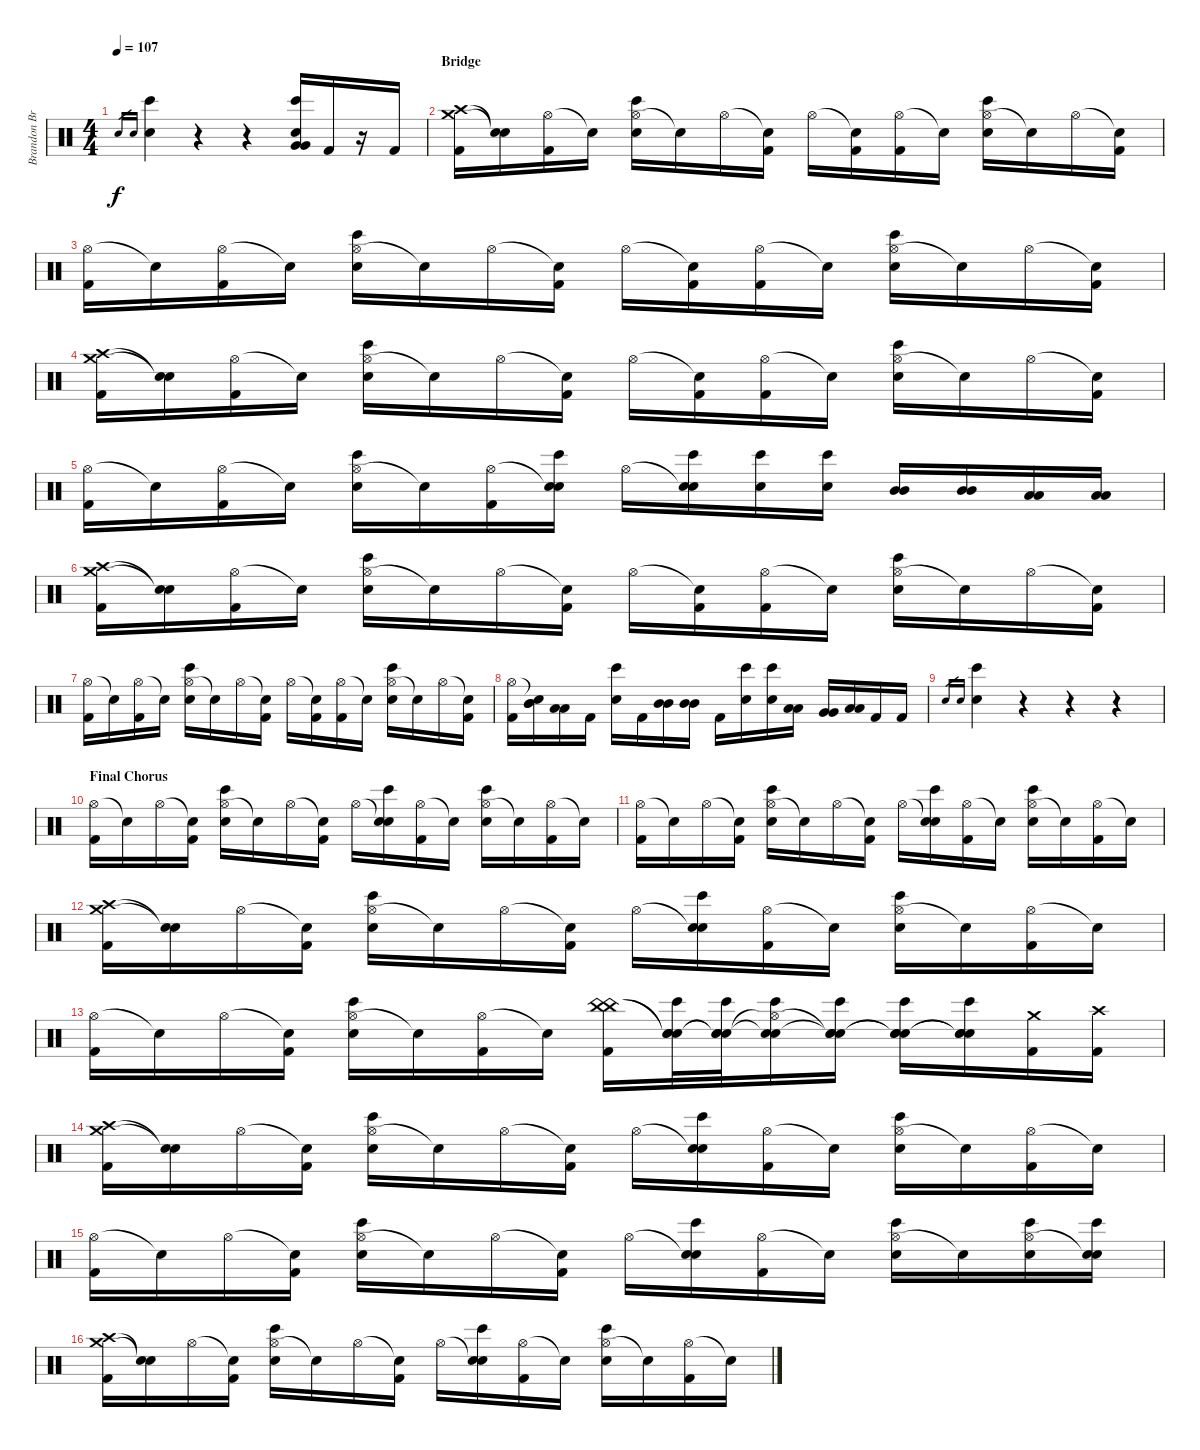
\track ("Brandon Brown (Drums)" "Brandon Br") {instrument percussion}
\staff {score}
\articulation defaults
\ts (4 4)
\tempo 107
\clef neutral
\ks c "Electric Snare (hit)".16{gr dy f} "Snare (hit)".16{gr}
("Electric Snare (hit)" "Bongo High (hit)").4 r.4 r.4 ("Bongo High (hit)" "Electric Snare (hit)" "Very Low Tom (hit)" "Very Low Tom (hit)").16 "Kick (hit) 2".16 r.16 "Kick (hit) 2".16 |
\section ("" "Bridge")
("Crash high (hit)" "Crash medium (hit)" "Kick (hit) 2").16 ("Snare (hit)"{t} "Snare (hit)"{t}).16 ("Hi-Hat (open)" "Kick (hit) 2").16 "Snare (hit)"{t}.16 ("Hi-Hat (open)" "Electric Snare (hit)" "Bongo High (hit)").16 "Snare (hit)"{t}.16 "Hi-Hat (open)".16 ("Snare (hit)"{t} "Kick (hit) 2").16 "Hi-Hat (open)".16 ("Snare (hit)"{t} "Kick (hit) 2").16 ("Hi-Hat (open)" "Kick (hit) 2").16 "Snare (hit)"{t}.16 ("Hi-Hat (open)" "Electric Snare (hit)" "Bongo High (hit)").16 "Snare (hit)"{t}.16 "Hi-Hat (open)".16 ("Snare (hit)"{t} "Kick (hit) 2").16 |
("Hi-Hat (open)" "Kick (hit) 2").16 "Snare (hit)"{t}.16 ("Hi-Hat (open)" "Kick (hit) 2").16 "Snare (hit)"{t}.16 ("Hi-Hat (open)" "Electric Snare (hit)" "Bongo High (hit)").16 "Snare (hit)"{t}.16 "Hi-Hat (open)".16 ("Snare (hit)"{t} "Kick (hit) 2").16 "Hi-Hat (open)".16 ("Snare (hit)"{t} "Kick (hit) 2").16 ("Hi-Hat (open)" "Kick (hit) 2").16 "Snare (hit)"{t}.16 ("Hi-Hat (open)" "Electric Snare (hit)" "Bongo High (hit)").16 "Snare (hit)"{t}.16 "Hi-Hat (open)".16 ("Snare (hit)"{t} "Kick (hit) 2").16 |
("Crash high (hit)" "Crash medium (hit)" "Kick (hit) 2").16 ("Snare (hit)"{t} "Snare (hit)"{t}).16 ("Hi-Hat (open)" "Kick (hit) 2").16 "Snare (hit)"{t}.16 ("Hi-Hat (open)" "Electric Snare (hit)" "Bongo High (hit)").16 "Snare (hit)"{t}.16 "Hi-Hat (open)".16 ("Snare (hit)"{t} "Kick (hit) 2").16 "Hi-Hat (open)".16 ("Snare (hit)"{t} "Kick (hit) 2").16 ("Hi-Hat (open)" "Kick (hit) 2").16 "Snare (hit)"{t}.16 ("Hi-Hat (open)" "Electric Snare (hit)" "Bongo High (hit)").16 "Snare (hit)"{t}.16 "Hi-Hat (open)".16 ("Snare (hit)"{t} "Kick (hit) 2").16 |
("Hi-Hat (open)" "Kick (hit) 2").16 "Snare (hit)"{t}.16 ("Hi-Hat (open)" "Kick (hit) 2").16 "Snare (hit)"{t}.16 ("Hi-Hat (open)" "Electric Snare (hit)" "Bongo High (hit)").16 "Snare (hit)"{t}.16 ("Hi-Hat (open)" "Kick (hit) 2").16 ("Snare (hit)"{t} "Electric Snare (hit)" "Bongo High (hit)").16 "Hi-Hat (open)".16 ("Snare (hit)"{t} "Electric Snare (hit)" "Bongo High (hit)").16 ("Electric Snare (hit)" "Bongo High (hit)").16 ("Electric Snare (hit)" "Bongo High (hit)").16 ("Mid Tom (hit)" "Mid Tom (hit)").16 ("Mid Tom (hit)" "Mid Tom (hit)").16 ("Low Tom (hit)" "Low Tom (hit)").16 ("Low Tom (hit)" "Low Tom (hit)").16 |
("Crash high (hit)" "Crash medium (hit)" "Kick (hit) 2").16 ("Snare (hit)"{t} "Snare (hit)"{t}).16 ("Hi-Hat (open)" "Kick (hit) 2").16 "Snare (hit)"{t}.16 ("Hi-Hat (open)" "Electric Snare (hit)" "Bongo High (hit)").16 "Snare (hit)"{t}.16 "Hi-Hat (open)".16 ("Snare (hit)"{t} "Kick (hit) 2").16 "Hi-Hat (open)".16 ("Snare (hit)"{t} "Kick (hit) 2").16 ("Hi-Hat (open)" "Kick (hit) 2").16 "Snare (hit)"{t}.16 ("Hi-Hat (open)" "Electric Snare (hit)" "Bongo High (hit)").16 "Snare (hit)"{t}.16 "Hi-Hat (open)".16 ("Snare (hit)"{t} "Kick (hit) 2").16 |
("Hi-Hat (open)" "Kick (hit) 2").16 "Snare (hit)"{t}.16 ("Hi-Hat (open)" "Kick (hit) 2").16 "Snare (hit)"{t}.16 ("Hi-Hat (open)" "Electric Snare (hit)" "Bongo High (hit)").16 "Snare (hit)"{t}.16 "Hi-Hat (open)".16 ("Snare (hit)"{t} "Kick (hit) 2").16 "Hi-Hat (open)".16 ("Snare (hit)"{t} "Kick (hit) 2").16 ("Hi-Hat (open)" "Kick (hit) 2").16 "Snare (hit)"{t}.16 ("Hi-Hat (open)" "Electric Snare (hit)" "Bongo High (hit)").16 "Snare (hit)"{t}.16 "Hi-Hat (open)".16 ("Snare (hit)"{t} "Kick (hit) 2").16 |
("Hi-Hat (open)" "Kick (hit) 2").16 ("Snare (hit)"{t} "Mid Tom (hit)" "Mid Tom (hit)").16 ("Low Tom (hit)" "Low Tom (hit)").16 "Kick (hit) 2".16 ("Electric Snare (hit)" "Bongo High (hit)").16 "Kick (hit) 2".16 ("Mid Tom (hit)" "Mid Tom (hit)").16 ("Mid Tom (hit)" "Mid Tom (hit)").16 "Kick (hit) 2".16 ("Electric Snare (hit)" "Bongo High (hit)").16 ("Electric Snare (hit)" "Bongo High (hit)").16 ("Low Tom (hit)" "Low Tom (hit)").16 ("Very Low Tom (hit)" "Very Low Tom (hit)").16 ("Low Floor Tom (hit)" "Low Floor Tom (hit)").16 "Kick (hit) 2".16 "Kick (hit) 2".16 |
"Electric Snare (hit)".16{gr} "Snare (hit)".16{gr} ("Electric Snare (hit)" "Bongo High (hit)").4 r.4 r.4 r.4 |
\section ("" "Final Chorus")
("Hi-Hat (open)" "Kick (hit) 2").16 "Snare (hit)"{t}.16 "Hi-Hat (open)".16 ("Snare (hit)"{t} "Kick (hit) 2").16 ("Hi-Hat (open)" "Electric Snare (hit)" "Bongo High (hit)").16 "Snare (hit)"{t}.16 "Hi-Hat (open)".16 ("Snare (hit)"{t} "Kick (hit) 2").16 "Hi-Hat (open)".16 ("Snare (hit)"{t} "Electric Snare (hit)" "Bongo High (hit)").16 ("Hi-Hat (open)" "Kick (hit) 2").16 "Snare (hit)"{t}.16 ("Hi-Hat (open)" "Electric Snare (hit)" "Bongo High (hit)").16 "Snare (hit)"{t}.16 ("Hi-Hat (open)" "Kick (hit) 2").16 "Snare (hit)"{t}.16 |
("Hi-Hat (open)" "Kick (hit) 2").16 "Snare (hit)"{t}.16 "Hi-Hat (open)".16 ("Snare (hit)"{t} "Kick (hit) 2").16 ("Hi-Hat (open)" "Electric Snare (hit)" "Bongo High (hit)").16 "Snare (hit)"{t}.16 "Hi-Hat (open)".16 ("Snare (hit)"{t} "Kick (hit) 2").16 "Hi-Hat (open)".16 ("Snare (hit)"{t} "Electric Snare (hit)" "Bongo High (hit)").16 ("Hi-Hat (open)" "Kick (hit) 2").16 "Snare (hit)"{t}.16 ("Hi-Hat (open)" "Electric Snare (hit)" "Bongo High (hit)").16 "Snare (hit)"{t}.16 ("Hi-Hat (open)" "Kick (hit) 2").16 "Snare (hit)"{t}.16 |
("Crash high (hit)" "Crash medium (hit)" "Kick (hit) 2").16 ("Snare (hit)"{t} "Snare (hit)"{t}).16 "Hi-Hat (open)".16 ("Snare (hit)"{t} "Kick (hit) 2").16 ("Hi-Hat (open)" "Electric Snare (hit)" "Bongo High (hit)").16 "Snare (hit)"{t}.16 "Hi-Hat (open)".16 ("Snare (hit)"{t} "Kick (hit) 2").16 "Hi-Hat (open)".16 ("Snare (hit)"{t} "Electric Snare (hit)" "Bongo High (hit)").16 ("Hi-Hat (open)" "Kick (hit) 2").16 "Snare (hit)"{t}.16 ("Hi-Hat (open)" "Electric Snare (hit)" "Bongo High (hit)").16 "Snare (hit)"{t}.16 ("Hi-Hat (open)" "Kick (hit) 2").16 "Snare (hit)"{t}.16 |
("Hi-Hat (open)" "Kick (hit) 2").16 "Snare (hit)"{t}.16 "Hi-Hat (open)".16 ("Snare (hit)"{t} "Kick (hit) 2").16 ("Hi-Hat (open)" "Electric Snare (hit)" "Bongo High (hit)").16 "Snare (hit)"{t}.16 ("Hi-Hat (open)" "Kick (hit) 2").16 "Snare (hit)"{t}.16 ("China (hit)" "China (hit)" "Kick (hit) 2").16 ("Snare (hit)"{t} "Snare (hit)"{t} "Electric Snare (hit)" "Bongo High (hit)").32 ("Snare (hit)"{t} "Snare (hit)"{t} "Electric Snare (hit)" "Bongo High (hit)").32 ("Hi-Hat (open)"{t} "Snare (hit)"{t} "Electric Snare (hit)" "Bongo High (hit)").16 ("Snare (hit)"{t} "Snare (hit)"{t} "Electric Snare (hit)" "Bongo High (hit)").16 ("Snare (hit)"{t} "Snare (hit)"{t} "Electric Snare (hit)" "Bongo High (hit)").16 ("Snare (hit)"{t} "Snare (hit)"{t} "Electric Snare (hit)" "Bongo High (hit)").16 ("Crash medium (hit)" "Kick (hit) 2").16 ("Crash high (hit)" "Kick (hit) 2").16 |
("Crash high (hit)" "Crash medium (hit)" "Kick (hit) 2").16 ("Snare (hit)"{t} "Snare (hit)"{t}).16 "Hi-Hat (open)".16 ("Snare (hit)"{t} "Kick (hit) 2").16 ("Hi-Hat (open)" "Electric Snare (hit)" "Bongo High (hit)").16 "Snare (hit)"{t}.16 "Hi-Hat (open)".16 ("Snare (hit)"{t} "Kick (hit) 2").16 "Hi-Hat (open)".16 ("Snare (hit)"{t} "Electric Snare (hit)" "Bongo High (hit)").16 ("Hi-Hat (open)" "Kick (hit) 2").16 "Snare (hit)"{t}.16 ("Hi-Hat (open)" "Electric Snare (hit)" "Bongo High (hit)").16 "Snare (hit)"{t}.16 ("Hi-Hat (open)" "Kick (hit) 2").16 "Snare (hit)"{t}.16 |
("Hi-Hat (open)" "Kick (hit) 2").16 "Snare (hit)"{t}.16 "Hi-Hat (open)".16 ("Snare (hit)"{t} "Kick (hit) 2").16 ("Hi-Hat (open)" "Electric Snare (hit)" "Bongo High (hit)").16 "Snare (hit)"{t}.16 "Hi-Hat (open)".16 ("Snare (hit)"{t} "Kick (hit) 2").16 "Hi-Hat (open)".16 ("Snare (hit)"{t} "Electric Snare (hit)" "Bongo High (hit)").16 ("Hi-Hat (open)" "Kick (hit) 2").16 "Snare (hit)"{t}.16 ("Hi-Hat (open)" "Electric Snare (hit)" "Bongo High (hit)").16 "Snare (hit)"{t}.16 ("Hi-Hat (open)" "Electric Snare (hit)" "Bongo High (hit)").16 ("Snare (hit)"{t} "Electric Snare (hit)" "Bongo High (hit)").16 |
("Crash high (hit)" "Crash medium (hit)" "Kick (hit) 2").16 ("Snare (hit)"{t} "Snare (hit)"{t}).16 "Hi-Hat (open)".16 ("Snare (hit)"{t} "Kick (hit) 2").16 ("Hi-Hat (open)" "Electric Snare (hit)" "Bongo High (hit)").16 "Snare (hit)"{t}.16 "Hi-Hat (open)".16 ("Snare (hit)"{t} "Kick (hit) 2").16 "Hi-Hat (open)".16 ("Snare (hit)"{t} "Electric Snare (hit)" "Bongo High (hit)").16 ("Hi-Hat (open)" "Kick (hit) 2").16 "Snare (hit)"{t}.16 ("Hi-Hat (open)" "Electric Snare (hit)" "Bongo High (hit)").16 "Snare (hit)"{t}.16 ("Hi-Hat (open)" "Kick (hit) 2").16 "Snare (hit)"{t}.16
